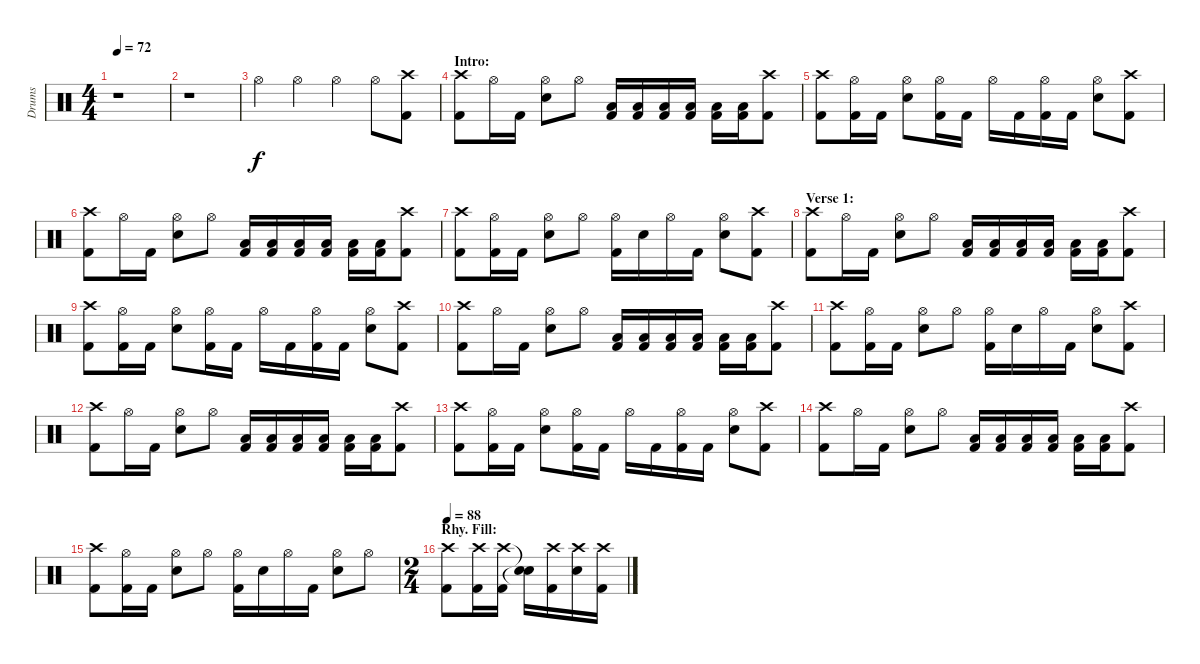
\track ("Drums" "Drums") {instrument percussion}
\staff {score}
\articulation defaults
\ts (4 4)
\tempo 72
\clef neutral
\ks c
r.1{dy f} |
r.1 |
"Hi-Hat (open)".4 "Hi-Hat (open)".4 "Hi-Hat (open)".4 "Hi-Hat (open)".8 ("Crash high (hit)" "Kick (hit) 2").8 |
\section ("" "Intro:")
("Crash high (hit)" "Kick (hit) 2").8 "Hi-Hat (open)".16 "Kick (hit) 2".16 ("Hi-Hat (open)" "Electric Snare (hit)").8 "Hi-Hat (open)".8 ("Low Floor Tom (hit)" "Kick (hit) 2").16 ("Low Floor Tom (hit)" "Kick (hit) 2").16 ("Low Floor Tom (hit)" "Kick (hit) 2").16 ("Low Floor Tom (hit)" "Kick (hit) 2").16 ("Low Floor Tom (hit)" "Kick (hit) 2").16 ("Low Floor Tom (hit)" "Kick (hit) 2").16 ("Crash high (hit)" "Kick (hit) 2").8 |
("Crash high (hit)" "Kick (hit) 2").8 ("Hi-Hat (open)" "Kick (hit) 2").16 "Kick (hit) 2".16 ("Hi-Hat (open)" "Electric Snare (hit)").8 ("Hi-Hat (open)" "Kick (hit) 2").16 "Kick (hit) 2".16 "Hi-Hat (open)".16 "Kick (hit) 2".16 ("Hi-Hat (open)" "Kick (hit) 2").16 "Kick (hit) 2".16 ("Hi-Hat (open)" "Electric Snare (hit)").8 ("Crash high (hit)" "Kick (hit) 2").8 |
("Crash high (hit)" "Kick (hit) 2").8 "Hi-Hat (open)".16 "Kick (hit) 2".16 ("Hi-Hat (open)" "Electric Snare (hit)").8 "Hi-Hat (open)".8 ("Low Floor Tom (hit)" "Kick (hit) 2").16 ("Low Floor Tom (hit)" "Kick (hit) 2").16 ("Low Floor Tom (hit)" "Kick (hit) 2").16 ("Low Floor Tom (hit)" "Kick (hit) 2").16 ("Low Floor Tom (hit)" "Kick (hit) 2").16 ("Low Floor Tom (hit)" "Kick (hit) 2").16 ("Crash high (hit)" "Kick (hit) 2").8 |
("Crash high (hit)" "Kick (hit) 2").8 ("Hi-Hat (open)" "Kick (hit) 2").16 "Kick (hit) 2".16 ("Hi-Hat (open)" "Electric Snare (hit)").8 "Hi-Hat (open)".8 ("Hi-Hat (open)" "Kick (hit) 2").16 "Electric Snare (hit)".16 "Hi-Hat (open)".16 "Kick (hit) 2".16 ("Hi-Hat (open)" "Electric Snare (hit)").8 ("Crash high (hit)" "Kick (hit) 2").8 |
\section ("" "Verse 1:")
("Crash high (hit)" "Kick (hit) 2").8 "Hi-Hat (open)".16 "Kick (hit) 2".16 ("Hi-Hat (open)" "Electric Snare (hit)").8 "Hi-Hat (open)".8 ("Low Floor Tom (hit)" "Kick (hit) 2").16 ("Low Floor Tom (hit)" "Kick (hit) 2").16 ("Low Floor Tom (hit)" "Kick (hit) 2").16 ("Low Floor Tom (hit)" "Kick (hit) 2").16 ("Low Floor Tom (hit)" "Kick (hit) 2").16 ("Low Floor Tom (hit)" "Kick (hit) 2").16 ("Crash high (hit)" "Kick (hit) 2").8 |
("Crash high (hit)" "Kick (hit) 2").8 ("Hi-Hat (open)" "Kick (hit) 2").16 "Kick (hit) 2".16 ("Hi-Hat (open)" "Electric Snare (hit)").8 ("Hi-Hat (open)" "Kick (hit) 2").16 "Kick (hit) 2".16 "Hi-Hat (open)".16 "Kick (hit) 2".16 ("Hi-Hat (open)" "Kick (hit) 2").16 "Kick (hit) 2".16 ("Hi-Hat (open)" "Electric Snare (hit)").8 ("Crash high (hit)" "Kick (hit) 2").8 |
("Crash high (hit)" "Kick (hit) 2").8 "Hi-Hat (open)".16 "Kick (hit) 2".16 ("Hi-Hat (open)" "Electric Snare (hit)").8 "Hi-Hat (open)".8 ("Low Floor Tom (hit)" "Kick (hit) 2").16 ("Low Floor Tom (hit)" "Kick (hit) 2").16 ("Low Floor Tom (hit)" "Kick (hit) 2").16 ("Low Floor Tom (hit)" "Kick (hit) 2").16 ("Low Floor Tom (hit)" "Kick (hit) 2").16 ("Low Floor Tom (hit)" "Kick (hit) 2").16 ("Crash high (hit)" "Kick (hit) 2").8 |
("Crash high (hit)" "Kick (hit) 2").8 ("Hi-Hat (open)" "Kick (hit) 2").16 "Kick (hit) 2".16 ("Hi-Hat (open)" "Electric Snare (hit)").8 "Hi-Hat (open)".8 ("Hi-Hat (open)" "Kick (hit) 2").16 "Electric Snare (hit)".16 "Hi-Hat (open)".16 "Kick (hit) 2".16 ("Hi-Hat (open)" "Electric Snare (hit)").8 ("Crash high (hit)" "Kick (hit) 2").8 |
("Crash high (hit)" "Kick (hit) 2").8 "Hi-Hat (open)".16 "Kick (hit) 2".16 ("Hi-Hat (open)" "Electric Snare (hit)").8 "Hi-Hat (open)".8 ("Low Floor Tom (hit)" "Kick (hit) 2").16 ("Low Floor Tom (hit)" "Kick (hit) 2").16 ("Low Floor Tom (hit)" "Kick (hit) 2").16 ("Low Floor Tom (hit)" "Kick (hit) 2").16 ("Low Floor Tom (hit)" "Kick (hit) 2").16 ("Low Floor Tom (hit)" "Kick (hit) 2").16 ("Crash high (hit)" "Kick (hit) 2").8 |
("Crash high (hit)" "Kick (hit) 2").8 ("Hi-Hat (open)" "Kick (hit) 2").16 "Kick (hit) 2".16 ("Hi-Hat (open)" "Electric Snare (hit)").8 ("Hi-Hat (open)" "Kick (hit) 2").16 "Kick (hit) 2".16 "Hi-Hat (open)".16 "Kick (hit) 2".16 ("Hi-Hat (open)" "Kick (hit) 2").16 "Kick (hit) 2".16 ("Hi-Hat (open)" "Electric Snare (hit)").8 ("Crash high (hit)" "Kick (hit) 2").8 |
("Crash high (hit)" "Kick (hit) 2").8 "Hi-Hat (open)".16 "Kick (hit) 2".16 ("Hi-Hat (open)" "Electric Snare (hit)").8 "Hi-Hat (open)".8 ("Low Floor Tom (hit)" "Kick (hit) 2").16 ("Low Floor Tom (hit)" "Kick (hit) 2").16 ("Low Floor Tom (hit)" "Kick (hit) 2").16 ("Low Floor Tom (hit)" "Kick (hit) 2").16 ("Low Floor Tom (hit)" "Kick (hit) 2").16 ("Low Floor Tom (hit)" "Kick (hit) 2").16 ("Crash high (hit)" "Kick (hit) 2").8 |
("Crash high (hit)" "Kick (hit) 2").8 ("Hi-Hat (open)" "Kick (hit) 2").16 "Kick (hit) 2".16 ("Hi-Hat (open)" "Electric Snare (hit)").8 "Hi-Hat (open)".8 ("Hi-Hat (open)" "Kick (hit) 2").16 "Electric Snare (hit)".16 "Hi-Hat (open)".16 "Kick (hit) 2".16 ("Hi-Hat (open)" "Electric Snare (hit)").8 "Hi-Hat (open)".8 |
\ts (2 4)
\section ("" "Rhy. Fill:")
\tempo 88
("Crash high (hit)" "Kick (hit) 2").8 ("Crash high (hit)" "Kick (hit) 2").16 ("Crash high (hit)" "Kick (hit) 2").16 ("Snare (hit)"{t} "Snare (hit)"{t}).16 ("Crash high (hit)" "Kick (hit) 2").16 ("Crash high (hit)" "Electric Snare (hit)").16 ("Crash high (hit)" "Kick (hit) 2").16
